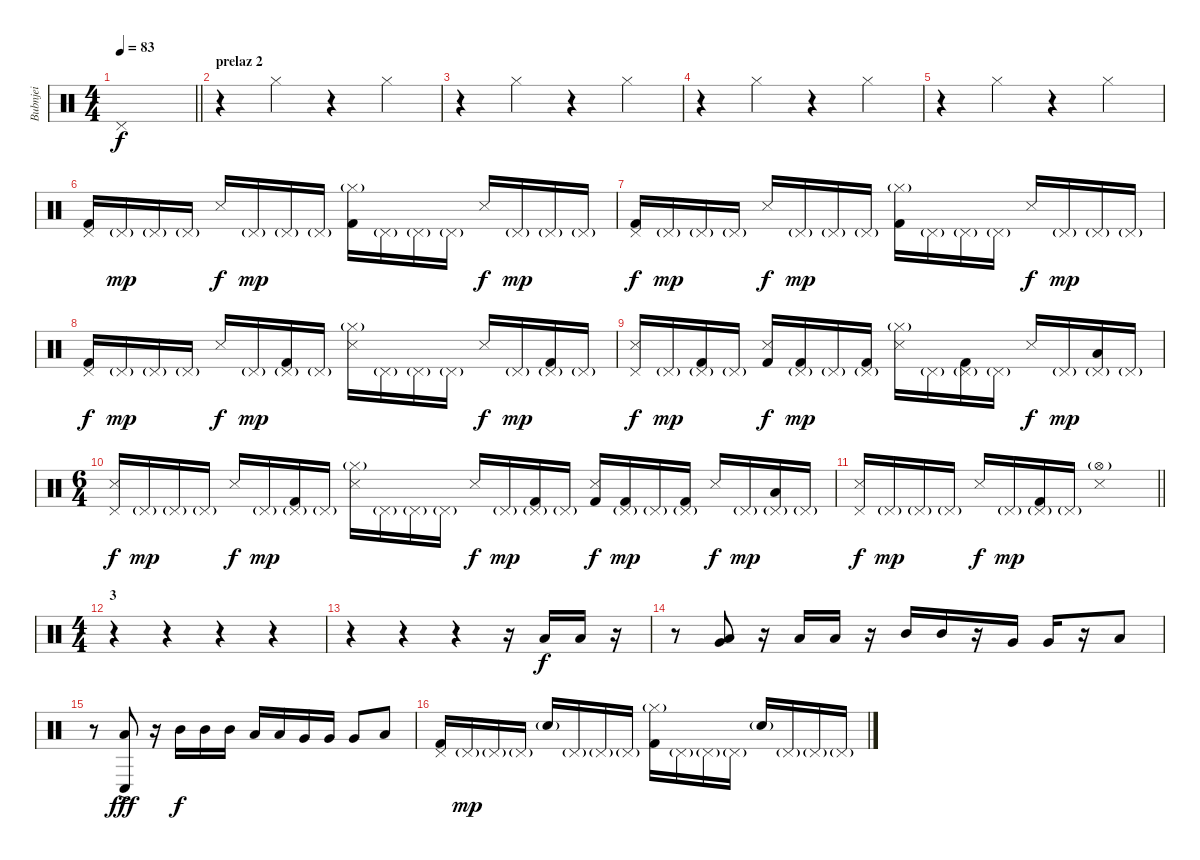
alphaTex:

\track ("Bubnjei" "Bubnjei") {instrument percussion}
\staff {score}
\articulation defaults
\ts (4 4)
\tempo 83
\clef neutral
\barLineRight lightlight
\ks c "Pedal Hi-Hat (hit)".1{dy f}
|
\section ("" "prelaz 2")
r.4 "Hi-Hat (closed)".4 r.4 "Hi-Hat (closed)".4 |
r.4 "Hi-Hat (closed)".4 r.4 "Hi-Hat (closed)".4 |
r.4 "Hi-Hat (closed)".4 r.4 "Hi-Hat (closed)".4 |
r.4 "Hi-Hat (closed)".4 r.4 "Hi-Hat (closed)".4 |
("Pedal Hi-Hat (hit)" "Kick (hit) 2").16 "Pedal Hi-Hat (hit)"{g}.16{dy mp} "Pedal Hi-Hat (hit)"{g}.16 "Pedal Hi-Hat (hit)"{g}.16 "Snare (side stick) 3".16{dy f} "Pedal Hi-Hat (hit)"{g}.16{dy mp} "Pedal Hi-Hat (hit)"{g}.16 "Pedal Hi-Hat (hit)"{g}.16 ("Hi-Hat (closed)"{g} "Kick (hit) 2").16 "Pedal Hi-Hat (hit)"{g}.16 "Pedal Hi-Hat (hit)"{g}.16 "Pedal Hi-Hat (hit)"{g}.16 "Snare (side stick) 3".16{dy f} "Pedal Hi-Hat (hit)"{g}.16{dy mp} "Pedal Hi-Hat (hit)"{g}.16 "Pedal Hi-Hat (hit)"{g}.16 |
("Pedal Hi-Hat (hit)" "Kick (hit) 2").16{dy f} "Pedal Hi-Hat (hit)"{g}.16{dy mp} "Pedal Hi-Hat (hit)"{g}.16 "Pedal Hi-Hat (hit)"{g}.16 "Snare (side stick) 3".16{dy f} "Pedal Hi-Hat (hit)"{g}.16{dy mp} "Pedal Hi-Hat (hit)"{g}.16 "Pedal Hi-Hat (hit)"{g}.16 ("Hi-Hat (closed)"{g} "Kick (hit) 2").16 "Pedal Hi-Hat (hit)"{g}.16 "Pedal Hi-Hat (hit)"{g}.16 "Pedal Hi-Hat (hit)"{g}.16 "Snare (side stick) 3".16{dy f} "Pedal Hi-Hat (hit)"{g}.16{dy mp} "Pedal Hi-Hat (hit)"{g}.16 "Pedal Hi-Hat (hit)"{g}.16 |
("Pedal Hi-Hat (hit)" "Kick (hit) 2").16{dy f} "Pedal Hi-Hat (hit)"{g}.16{dy mp} "Pedal Hi-Hat (hit)"{g}.16 "Pedal Hi-Hat (hit)"{g}.16 "Snare (side stick) 3".16{dy f} "Pedal Hi-Hat (hit)"{g}.16{dy mp} ("Pedal Hi-Hat (hit)"{g} "Kick (hit) 2").16 "Pedal Hi-Hat (hit)"{g}.16 ("Hi-Hat (closed)"{g} "Snare (side stick) 3").16 "Pedal Hi-Hat (hit)"{g}.16 "Pedal Hi-Hat (hit)"{g}.16 "Pedal Hi-Hat (hit)"{g}.16 "Snare (side stick) 3".16{dy f} "Pedal Hi-Hat (hit)"{g}.16{dy mp} ("Pedal Hi-Hat (hit)"{g} "Kick (hit) 2").16 "Pedal Hi-Hat (hit)"{g}.16 |
("Pedal Hi-Hat (hit)" "Snare (side stick) 3").16{dy f} "Pedal Hi-Hat (hit)"{g}.16{dy mp} ("Pedal Hi-Hat (hit)"{g} "Kick (hit) 2").16 "Pedal Hi-Hat (hit)"{g}.16 ("Snare (side stick) 3" "Kick (hit) 2").16{dy f} ("Pedal Hi-Hat (hit)"{g} "Kick (hit) 2").16{dy mp} "Pedal Hi-Hat (hit)"{g}.16 ("Pedal Hi-Hat (hit)"{g} "Kick (hit) 2").16 ("Hi-Hat (closed)"{g} "Snare (side stick) 3").16 "Pedal Hi-Hat (hit)"{g}.16 ("Pedal Hi-Hat (hit)"{g} "Kick (hit) 2").16 "Pedal Hi-Hat (hit)"{g}.16 "Snare (side stick) 3".16{dy f} "Pedal Hi-Hat (hit)"{g}.16{dy mp} ("Pedal Hi-Hat (hit)"{g} "Low Floor Tom (hit)").16 "Pedal Hi-Hat (hit)"{g}.16 |
\ts (6 4)
("Pedal Hi-Hat (hit)" "Snare (side stick) 3").16{dy f} "Pedal Hi-Hat (hit)"{g}.16{dy mp} "Pedal Hi-Hat (hit)"{g}.16 "Pedal Hi-Hat (hit)"{g}.16 "Snare (side stick) 3".16{dy f} "Pedal Hi-Hat (hit)"{g}.16{dy mp} ("Pedal Hi-Hat (hit)"{g} "Kick (hit) 2").16 "Pedal Hi-Hat (hit)"{g}.16 ("Hi-Hat (closed)"{g} "Snare (side stick) 3").16 "Pedal Hi-Hat (hit)"{g}.16 "Pedal Hi-Hat (hit)"{g}.16 "Pedal Hi-Hat (hit)"{g}.16 "Snare (side stick) 3".16{dy f} "Pedal Hi-Hat (hit)"{g}.16{dy mp} ("Pedal Hi-Hat (hit)"{g} "Kick (hit) 2").16 "Pedal Hi-Hat (hit)"{g}.16 ("Snare (side stick) 3" "Kick (hit) 2").16{dy f} ("Pedal Hi-Hat (hit)"{g} "Kick (hit) 2").16{dy mp} "Pedal Hi-Hat (hit)"{g}.16 ("Pedal Hi-Hat (hit)"{g} "Kick (hit) 2").16 "Snare (side stick) 3".16{dy f} "Pedal Hi-Hat (hit)"{g}.16{dy mp} ("Pedal Hi-Hat (hit)"{g} "Low Floor Tom (hit)").16 "Pedal Hi-Hat (hit)"{g}.16 |
\barLineRight lightlight
("Pedal Hi-Hat (hit)" "Snare (side stick) 3").16{dy f} "Pedal Hi-Hat (hit)"{g}.16{dy mp} "Pedal Hi-Hat (hit)"{g}.16 "Pedal Hi-Hat (hit)"{g}.16 "Snare (side stick) 3".16{dy f} "Pedal Hi-Hat (hit)"{g}.16{dy mp} ("Pedal Hi-Hat (hit)"{g} "Kick (hit) 2").16 "Pedal Hi-Hat (hit)"{g}.16 ("Hi-Hat (open)"{g} "Snare (side stick) 3").1 |
\ts (4 4)
\section ("" "3")
r.4 r.4 r.4 r.4 |
r.4 r.4 r.4 r.16 "Low Tom (hit)".16{dy f} "Low Tom (hit)".16 r.16 |
r.8 ("Very Low Tom (hit)" "Low Tom (hit)").8{bd 240} r.16 "Low Tom (hit)".16 "Low Tom (hit)".16 r.16 "Mid Tom (hit)".16 "Mid Tom (hit)".16 r.16 "Very Low Tom (hit)".16 "Very Low Tom (hit)".16 r.16 "Low Floor Tom (hit)".8 |
r.8 ("Conga low (hit)"{ac} "Low Tom (hit)"{ac}).8{bd 240 dy fff} r.16 "Mid Tom (hit)".16{dy f} "Mid Tom (hit)".16 "Mid Tom (hit)".16 "Low Tom (hit)".16 "Low Tom (hit)".16 "Very Low Tom (hit)".16 "Very Low Tom (hit)".16 "Very Low Tom (hit)".8 "Low Floor Tom (hit)".8 |
("Pedal Hi-Hat (hit)" "Kick (hit) 2").16 "Pedal Hi-Hat (hit)"{g}.16{dy mp} "Pedal Hi-Hat (hit)"{g}.16 "Pedal Hi-Hat (hit)"{g}.16 "Snare (hit) 2"{g}.16 "Pedal Hi-Hat (hit)"{g}.16 "Pedal Hi-Hat (hit)"{g}.16 "Pedal Hi-Hat (hit)"{g}.16 ("Hi-Hat (closed)"{g} "Kick (hit) 2").16 "Pedal Hi-Hat (hit)"{g}.16 "Pedal Hi-Hat (hit)"{g}.16 "Pedal Hi-Hat (hit)"{g}.16 "Snare (hit) 2"{g}.16 "Pedal Hi-Hat (hit)"{g}.16 "Pedal Hi-Hat (hit)"{g}.16 "Pedal Hi-Hat (hit)"{g}.16
